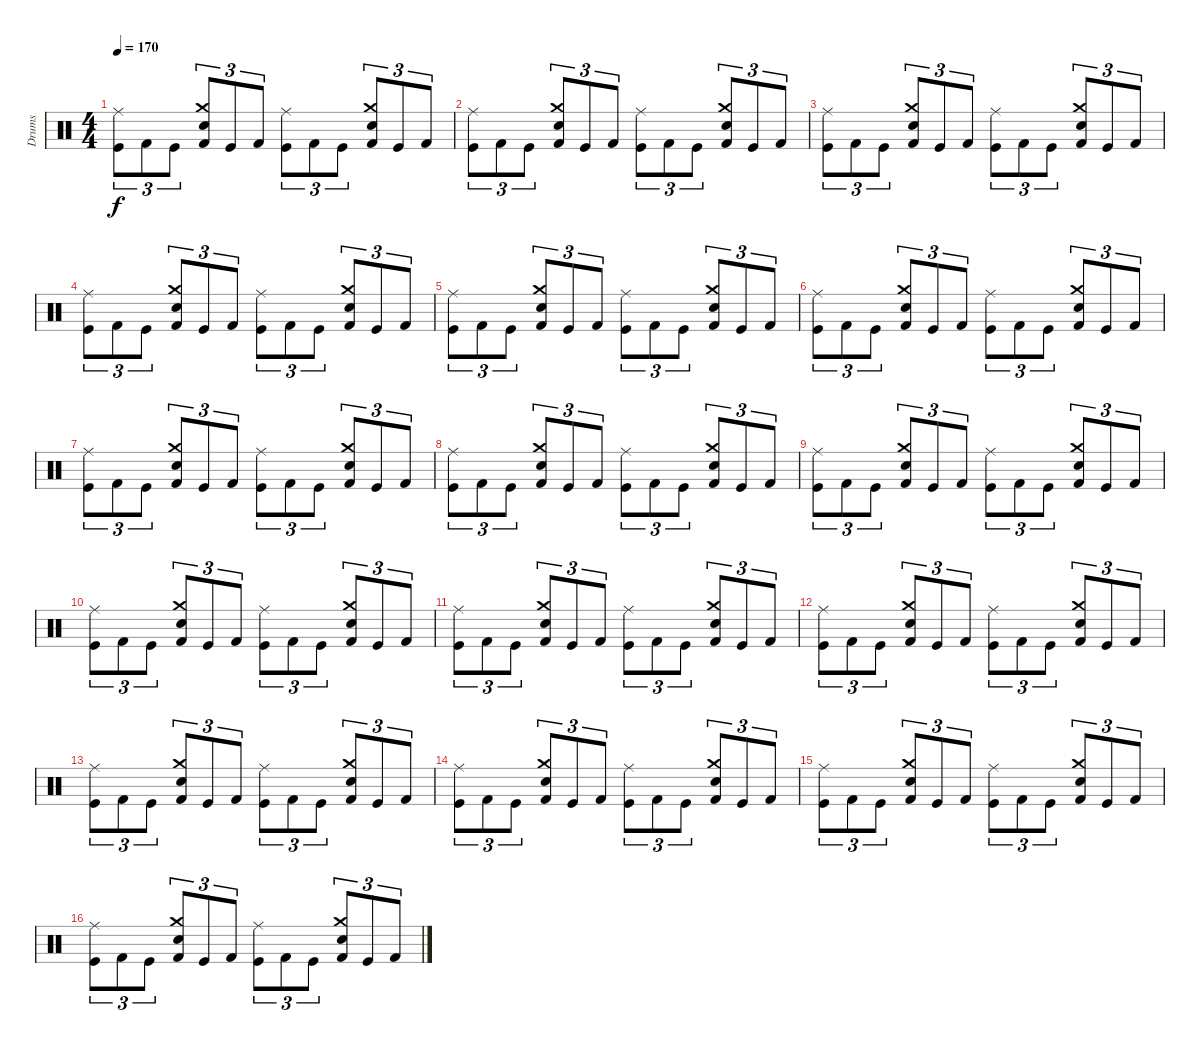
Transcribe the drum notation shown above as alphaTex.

\track ("Drums" "Drums") {instrument percussion}
\staff {score}
\articulation defaults
\ts (4 4)
\tempo 170
\clef neutral
\ks c
("Ride (middle)" "Kick (hit)").8{tu (3 2) dy f} "Kick (hit) 2".8{tu (3 2)} "Kick (hit)".8{tu (3 2)} ("Crash medium (hit)" "Electric Snare (hit)" "Kick (hit) 2").8{tu (3 2)} "Kick (hit)".8{tu (3 2)} "Kick (hit) 2".8{tu (3 2)} ("Ride (middle)" "Kick (hit)").8{tu (3 2)} "Kick (hit) 2".8{tu (3 2)} "Kick (hit)".8{tu (3 2)} ("Crash medium (hit)" "Electric Snare (hit)" "Kick (hit) 2").8{tu (3 2)} "Kick (hit)".8{tu (3 2)} "Kick (hit) 2".8{tu (3 2)} |
("Ride (middle)" "Kick (hit)").8{tu (3 2)} "Kick (hit) 2".8{tu (3 2)} "Kick (hit)".8{tu (3 2)} ("Crash medium (hit)" "Electric Snare (hit)" "Kick (hit) 2").8{tu (3 2)} "Kick (hit)".8{tu (3 2)} "Kick (hit) 2".8{tu (3 2)} ("Ride (middle)" "Kick (hit)").8{tu (3 2)} "Kick (hit) 2".8{tu (3 2)} "Kick (hit)".8{tu (3 2)} ("Crash medium (hit)" "Electric Snare (hit)" "Kick (hit) 2").8{tu (3 2)} "Kick (hit)".8{tu (3 2)} "Kick (hit) 2".8{tu (3 2)} |
("Ride (middle)" "Kick (hit)").8{tu (3 2)} "Kick (hit) 2".8{tu (3 2)} "Kick (hit)".8{tu (3 2)} ("Crash medium (hit)" "Electric Snare (hit)" "Kick (hit) 2").8{tu (3 2)} "Kick (hit)".8{tu (3 2)} "Kick (hit) 2".8{tu (3 2)} ("Ride (middle)" "Kick (hit)").8{tu (3 2)} "Kick (hit) 2".8{tu (3 2)} "Kick (hit)".8{tu (3 2)} ("Crash medium (hit)" "Electric Snare (hit)" "Kick (hit) 2").8{tu (3 2)} "Kick (hit)".8{tu (3 2)} "Kick (hit) 2".8{tu (3 2)} |
("Ride (middle)" "Kick (hit)").8{tu (3 2)} "Kick (hit) 2".8{tu (3 2)} "Kick (hit)".8{tu (3 2)} ("Crash medium (hit)" "Electric Snare (hit)" "Kick (hit) 2").8{tu (3 2)} "Kick (hit)".8{tu (3 2)} "Kick (hit) 2".8{tu (3 2)} ("Ride (middle)" "Kick (hit)").8{tu (3 2)} "Kick (hit) 2".8{tu (3 2)} "Kick (hit)".8{tu (3 2)} ("Crash medium (hit)" "Electric Snare (hit)" "Kick (hit) 2").8{tu (3 2)} "Kick (hit)".8{tu (3 2)} "Kick (hit) 2".8{tu (3 2)} |
("Ride (middle)" "Kick (hit)").8{tu (3 2)} "Kick (hit) 2".8{tu (3 2)} "Kick (hit)".8{tu (3 2)} ("Crash medium (hit)" "Electric Snare (hit)" "Kick (hit) 2").8{tu (3 2)} "Kick (hit)".8{tu (3 2)} "Kick (hit) 2".8{tu (3 2)} ("Ride (middle)" "Kick (hit)").8{tu (3 2)} "Kick (hit) 2".8{tu (3 2)} "Kick (hit)".8{tu (3 2)} ("Crash medium (hit)" "Electric Snare (hit)" "Kick (hit) 2").8{tu (3 2)} "Kick (hit)".8{tu (3 2)} "Kick (hit) 2".8{tu (3 2)} |
("Ride (middle)" "Kick (hit)").8{tu (3 2)} "Kick (hit) 2".8{tu (3 2)} "Kick (hit)".8{tu (3 2)} ("Crash medium (hit)" "Electric Snare (hit)" "Kick (hit) 2").8{tu (3 2)} "Kick (hit)".8{tu (3 2)} "Kick (hit) 2".8{tu (3 2)} ("Ride (middle)" "Kick (hit)").8{tu (3 2)} "Kick (hit) 2".8{tu (3 2)} "Kick (hit)".8{tu (3 2)} ("Crash medium (hit)" "Electric Snare (hit)" "Kick (hit) 2").8{tu (3 2)} "Kick (hit)".8{tu (3 2)} "Kick (hit) 2".8{tu (3 2)} |
("Ride (middle)" "Kick (hit)").8{tu (3 2)} "Kick (hit) 2".8{tu (3 2)} "Kick (hit)".8{tu (3 2)} ("Crash medium (hit)" "Electric Snare (hit)" "Kick (hit) 2").8{tu (3 2)} "Kick (hit)".8{tu (3 2)} "Kick (hit) 2".8{tu (3 2)} ("Ride (middle)" "Kick (hit)").8{tu (3 2)} "Kick (hit) 2".8{tu (3 2)} "Kick (hit)".8{tu (3 2)} ("Crash medium (hit)" "Electric Snare (hit)" "Kick (hit) 2").8{tu (3 2)} "Kick (hit)".8{tu (3 2)} "Kick (hit) 2".8{tu (3 2)} |
("Ride (middle)" "Kick (hit)").8{tu (3 2)} "Kick (hit) 2".8{tu (3 2)} "Kick (hit)".8{tu (3 2)} ("Crash medium (hit)" "Electric Snare (hit)" "Kick (hit) 2").8{tu (3 2)} "Kick (hit)".8{tu (3 2)} "Kick (hit) 2".8{tu (3 2)} ("Ride (middle)" "Kick (hit)").8{tu (3 2)} "Kick (hit) 2".8{tu (3 2)} "Kick (hit)".8{tu (3 2)} ("Crash medium (hit)" "Electric Snare (hit)" "Kick (hit) 2").8{tu (3 2)} "Kick (hit)".8{tu (3 2)} "Kick (hit) 2".8{tu (3 2)} |
("Ride (middle)" "Kick (hit)").8{tu (3 2)} "Kick (hit) 2".8{tu (3 2)} "Kick (hit)".8{tu (3 2)} ("Crash medium (hit)" "Electric Snare (hit)" "Kick (hit) 2").8{tu (3 2)} "Kick (hit)".8{tu (3 2)} "Kick (hit) 2".8{tu (3 2)} ("Ride (middle)" "Kick (hit)").8{tu (3 2)} "Kick (hit) 2".8{tu (3 2)} "Kick (hit)".8{tu (3 2)} ("Crash medium (hit)" "Electric Snare (hit)" "Kick (hit) 2").8{tu (3 2)} "Kick (hit)".8{tu (3 2)} "Kick (hit) 2".8{tu (3 2)} |
("Ride (middle)" "Kick (hit)").8{tu (3 2)} "Kick (hit) 2".8{tu (3 2)} "Kick (hit)".8{tu (3 2)} ("Crash medium (hit)" "Electric Snare (hit)" "Kick (hit) 2").8{tu (3 2)} "Kick (hit)".8{tu (3 2)} "Kick (hit) 2".8{tu (3 2)} ("Ride (middle)" "Kick (hit)").8{tu (3 2)} "Kick (hit) 2".8{tu (3 2)} "Kick (hit)".8{tu (3 2)} ("Crash medium (hit)" "Electric Snare (hit)" "Kick (hit) 2").8{tu (3 2)} "Kick (hit)".8{tu (3 2)} "Kick (hit) 2".8{tu (3 2)} |
("Ride (middle)" "Kick (hit)").8{tu (3 2)} "Kick (hit) 2".8{tu (3 2)} "Kick (hit)".8{tu (3 2)} ("Crash medium (hit)" "Electric Snare (hit)" "Kick (hit) 2").8{tu (3 2)} "Kick (hit)".8{tu (3 2)} "Kick (hit) 2".8{tu (3 2)} ("Ride (middle)" "Kick (hit)").8{tu (3 2)} "Kick (hit) 2".8{tu (3 2)} "Kick (hit)".8{tu (3 2)} ("Crash medium (hit)" "Electric Snare (hit)" "Kick (hit) 2").8{tu (3 2)} "Kick (hit)".8{tu (3 2)} "Kick (hit) 2".8{tu (3 2)} |
("Ride (middle)" "Kick (hit)").8{tu (3 2)} "Kick (hit) 2".8{tu (3 2)} "Kick (hit)".8{tu (3 2)} ("Crash medium (hit)" "Electric Snare (hit)" "Kick (hit) 2").8{tu (3 2)} "Kick (hit)".8{tu (3 2)} "Kick (hit) 2".8{tu (3 2)} ("Ride (middle)" "Kick (hit)").8{tu (3 2)} "Kick (hit) 2".8{tu (3 2)} "Kick (hit)".8{tu (3 2)} ("Crash medium (hit)" "Electric Snare (hit)" "Kick (hit) 2").8{tu (3 2)} "Kick (hit)".8{tu (3 2)} "Kick (hit) 2".8{tu (3 2)} |
("Ride (middle)" "Kick (hit)").8{tu (3 2)} "Kick (hit) 2".8{tu (3 2)} "Kick (hit)".8{tu (3 2)} ("Crash medium (hit)" "Electric Snare (hit)" "Kick (hit) 2").8{tu (3 2)} "Kick (hit)".8{tu (3 2)} "Kick (hit) 2".8{tu (3 2)} ("Ride (middle)" "Kick (hit)").8{tu (3 2)} "Kick (hit) 2".8{tu (3 2)} "Kick (hit)".8{tu (3 2)} ("Crash medium (hit)" "Electric Snare (hit)" "Kick (hit) 2").8{tu (3 2)} "Kick (hit)".8{tu (3 2)} "Kick (hit) 2".8{tu (3 2)} |
("Ride (middle)" "Kick (hit)").8{tu (3 2)} "Kick (hit) 2".8{tu (3 2)} "Kick (hit)".8{tu (3 2)} ("Crash medium (hit)" "Electric Snare (hit)" "Kick (hit) 2").8{tu (3 2)} "Kick (hit)".8{tu (3 2)} "Kick (hit) 2".8{tu (3 2)} ("Ride (middle)" "Kick (hit)").8{tu (3 2)} "Kick (hit) 2".8{tu (3 2)} "Kick (hit)".8{tu (3 2)} ("Crash medium (hit)" "Electric Snare (hit)" "Kick (hit) 2").8{tu (3 2)} "Kick (hit)".8{tu (3 2)} "Kick (hit) 2".8{tu (3 2)} |
("Ride (middle)" "Kick (hit)").8{tu (3 2)} "Kick (hit) 2".8{tu (3 2)} "Kick (hit)".8{tu (3 2)} ("Crash medium (hit)" "Electric Snare (hit)" "Kick (hit) 2").8{tu (3 2)} "Kick (hit)".8{tu (3 2)} "Kick (hit) 2".8{tu (3 2)} ("Ride (middle)" "Kick (hit)").8{tu (3 2)} "Kick (hit) 2".8{tu (3 2)} "Kick (hit)".8{tu (3 2)} ("Crash medium (hit)" "Electric Snare (hit)" "Kick (hit) 2").8{tu (3 2)} "Kick (hit)".8{tu (3 2)} "Kick (hit) 2".8{tu (3 2)} |
("Ride (middle)" "Kick (hit)").8{tu (3 2)} "Kick (hit) 2".8{tu (3 2)} "Kick (hit)".8{tu (3 2)} ("Crash medium (hit)" "Electric Snare (hit)" "Kick (hit) 2").8{tu (3 2)} "Kick (hit)".8{tu (3 2)} "Kick (hit) 2".8{tu (3 2)} ("Ride (middle)" "Kick (hit)").8{tu (3 2)} "Kick (hit) 2".8{tu (3 2)} "Kick (hit)".8{tu (3 2)} ("Crash medium (hit)" "Electric Snare (hit)" "Kick (hit) 2").8{tu (3 2)} "Kick (hit)".8{tu (3 2)} "Kick (hit) 2".8{tu (3 2)}
